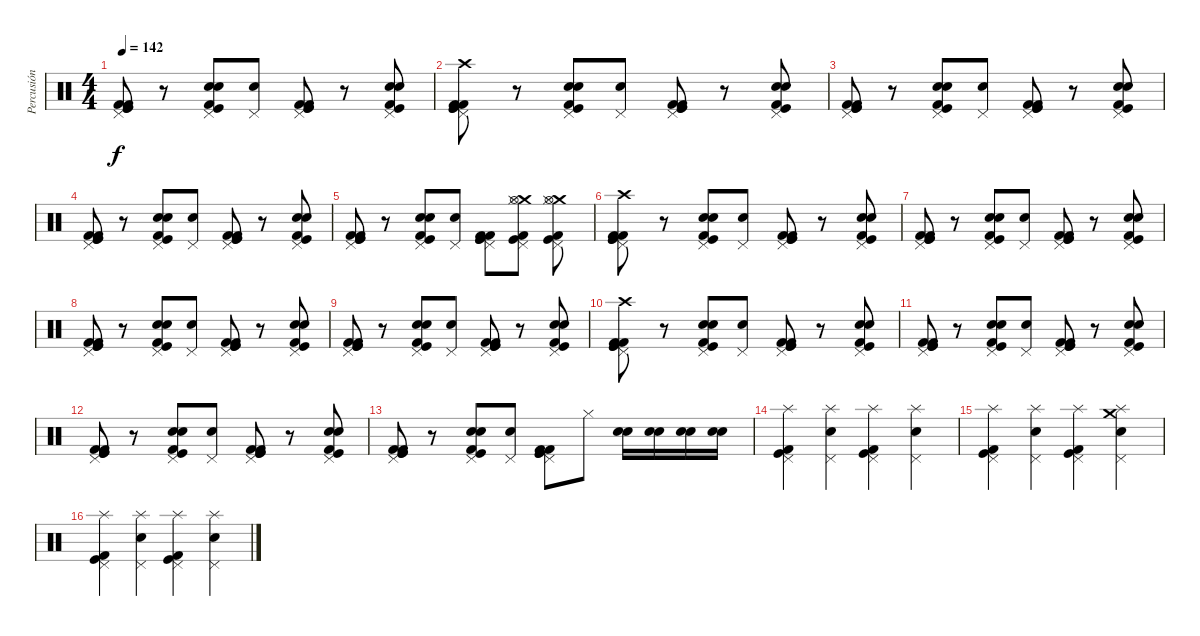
\track ("Percusión" "Percusión") {instrument percussion}
\staff {score}
\articulation defaults
\ts (4 4)
\tempo 142
\clef neutral
\ks c
("Kick (hit) 2" "Kick (hit)" "Pedal Hi-Hat (hit)" "Kick (hit) 2" "Kick (hit)").8{dy f} r.8 ("Snare (hit) 2" "Pedal Hi-Hat (hit)" "Electric Snare (hit)" "Kick (hit)" "Kick (hit) 2").8 ("Pedal Hi-Hat (hit)" "Electric Snare (hit)").8 ("Kick (hit) 2" "Kick (hit)" "Pedal Hi-Hat (hit)" "Kick (hit) 2" "Kick (hit)").8 r.8 ("Snare (hit) 2" "Pedal Hi-Hat (hit)" "Electric Snare (hit)" "Kick (hit)" "Kick (hit) 2").8 |
("Kick (hit) 2" "Kick (hit)" "Crash high (hit)" "Pedal Hi-Hat (hit)" "Kick (hit) 2" "Kick (hit)").8 r.8 ("Snare (hit) 2" "Pedal Hi-Hat (hit)" "Electric Snare (hit)" "Kick (hit)" "Kick (hit) 2").8 ("Pedal Hi-Hat (hit)" "Electric Snare (hit)").8 ("Kick (hit) 2" "Kick (hit)" "Pedal Hi-Hat (hit)" "Kick (hit) 2" "Kick (hit)").8 r.8 ("Snare (hit) 2" "Pedal Hi-Hat (hit)" "Electric Snare (hit)" "Kick (hit)" "Kick (hit) 2").8 |
("Kick (hit) 2" "Kick (hit)" "Pedal Hi-Hat (hit)" "Kick (hit) 2" "Kick (hit)").8 r.8 ("Snare (hit) 2" "Pedal Hi-Hat (hit)" "Electric Snare (hit)" "Kick (hit)" "Kick (hit) 2").8 ("Pedal Hi-Hat (hit)" "Electric Snare (hit)").8 ("Kick (hit) 2" "Kick (hit)" "Pedal Hi-Hat (hit)" "Kick (hit) 2" "Kick (hit)").8 r.8 ("Snare (hit) 2" "Pedal Hi-Hat (hit)" "Electric Snare (hit)" "Kick (hit)" "Kick (hit) 2").8 |
("Kick (hit) 2" "Kick (hit)" "Pedal Hi-Hat (hit)" "Kick (hit) 2" "Kick (hit)").8 r.8 ("Snare (hit) 2" "Pedal Hi-Hat (hit)" "Electric Snare (hit)" "Kick (hit)" "Kick (hit) 2").8 ("Pedal Hi-Hat (hit)" "Electric Snare (hit)").8 ("Kick (hit) 2" "Kick (hit)" "Pedal Hi-Hat (hit)" "Kick (hit) 2" "Kick (hit)").8 r.8 ("Snare (hit) 2" "Pedal Hi-Hat (hit)" "Electric Snare (hit)" "Kick (hit)" "Kick (hit) 2").8 |
("Kick (hit) 2" "Kick (hit)" "Pedal Hi-Hat (hit)" "Kick (hit) 2" "Kick (hit)").8 r.8 ("Snare (hit) 2" "Pedal Hi-Hat (hit)" "Electric Snare (hit)" "Kick (hit)" "Kick (hit) 2").8 ("Pedal Hi-Hat (hit)" "Electric Snare (hit)").8 ("Kick (hit) 2" "Kick (hit)" "Pedal Hi-Hat (hit)" "Kick (hit) 2" "Kick (hit)").8 ("Crash medium (hit)" "Hi-Hat (open)" "Pedal Hi-Hat (hit)" "Hi-Hat (closed)" "Kick (hit)" "Kick (hit) 2").8 ("Crash medium (hit)" "Hi-Hat (open)" "Pedal Hi-Hat (hit)" "Hi-Hat (closed)" "Kick (hit)" "Kick (hit) 2").8 |
("Kick (hit) 2" "Kick (hit)" "Crash high (hit)" "Pedal Hi-Hat (hit)" "Kick (hit) 2" "Kick (hit)").8 r.8 ("Snare (hit) 2" "Pedal Hi-Hat (hit)" "Electric Snare (hit)" "Kick (hit)" "Kick (hit) 2").8 ("Pedal Hi-Hat (hit)" "Electric Snare (hit)").8 ("Kick (hit) 2" "Kick (hit)" "Pedal Hi-Hat (hit)" "Kick (hit) 2" "Kick (hit)").8 r.8 ("Snare (hit) 2" "Pedal Hi-Hat (hit)" "Electric Snare (hit)" "Kick (hit)" "Kick (hit) 2").8 |
("Kick (hit) 2" "Kick (hit)" "Pedal Hi-Hat (hit)" "Kick (hit) 2" "Kick (hit)").8 r.8 ("Snare (hit) 2" "Pedal Hi-Hat (hit)" "Electric Snare (hit)" "Kick (hit)" "Kick (hit) 2").8 ("Pedal Hi-Hat (hit)" "Electric Snare (hit)").8 ("Kick (hit) 2" "Kick (hit)" "Pedal Hi-Hat (hit)" "Kick (hit) 2" "Kick (hit)").8 r.8 ("Snare (hit) 2" "Pedal Hi-Hat (hit)" "Electric Snare (hit)" "Kick (hit)" "Kick (hit) 2").8 |
("Kick (hit) 2" "Kick (hit)" "Pedal Hi-Hat (hit)" "Kick (hit) 2" "Kick (hit)").8 r.8 ("Snare (hit) 2" "Pedal Hi-Hat (hit)" "Electric Snare (hit)" "Kick (hit)" "Kick (hit) 2").8 ("Pedal Hi-Hat (hit)" "Electric Snare (hit)").8 ("Kick (hit) 2" "Kick (hit)" "Pedal Hi-Hat (hit)" "Kick (hit) 2" "Kick (hit)").8 r.8 ("Snare (hit) 2" "Pedal Hi-Hat (hit)" "Electric Snare (hit)" "Kick (hit)" "Kick (hit) 2").8 |
("Kick (hit) 2" "Kick (hit)" "Pedal Hi-Hat (hit)" "Kick (hit) 2" "Kick (hit)").8 r.8 ("Snare (hit) 2" "Pedal Hi-Hat (hit)" "Electric Snare (hit)" "Kick (hit)" "Kick (hit) 2").8 ("Pedal Hi-Hat (hit)" "Electric Snare (hit)").8 ("Kick (hit) 2" "Kick (hit)" "Pedal Hi-Hat (hit)" "Kick (hit) 2" "Kick (hit)").8 r.8 ("Snare (hit) 2" "Pedal Hi-Hat (hit)" "Electric Snare (hit)" "Kick (hit)" "Kick (hit) 2").8 |
("Kick (hit) 2" "Kick (hit)" "Crash high (hit)" "Pedal Hi-Hat (hit)" "Kick (hit) 2" "Kick (hit)").8 r.8 ("Snare (hit) 2" "Pedal Hi-Hat (hit)" "Electric Snare (hit)" "Kick (hit)" "Kick (hit) 2").8 ("Pedal Hi-Hat (hit)" "Electric Snare (hit)").8 ("Kick (hit) 2" "Kick (hit)" "Pedal Hi-Hat (hit)" "Kick (hit) 2" "Kick (hit)").8 r.8 ("Snare (hit) 2" "Pedal Hi-Hat (hit)" "Electric Snare (hit)" "Kick (hit)" "Kick (hit) 2").8 |
("Kick (hit) 2" "Kick (hit)" "Pedal Hi-Hat (hit)" "Kick (hit) 2" "Kick (hit)").8 r.8 ("Snare (hit) 2" "Pedal Hi-Hat (hit)" "Electric Snare (hit)" "Kick (hit)" "Kick (hit) 2").8 ("Pedal Hi-Hat (hit)" "Electric Snare (hit)").8 ("Kick (hit) 2" "Kick (hit)" "Pedal Hi-Hat (hit)" "Kick (hit) 2" "Kick (hit)").8 r.8 ("Snare (hit) 2" "Pedal Hi-Hat (hit)" "Electric Snare (hit)" "Kick (hit)" "Kick (hit) 2").8 |
("Kick (hit) 2" "Kick (hit)" "Pedal Hi-Hat (hit)" "Kick (hit) 2" "Kick (hit)").8 r.8 ("Snare (hit) 2" "Pedal Hi-Hat (hit)" "Electric Snare (hit)" "Kick (hit)" "Kick (hit) 2").8 ("Pedal Hi-Hat (hit)" "Electric Snare (hit)").8 ("Kick (hit) 2" "Kick (hit)" "Pedal Hi-Hat (hit)" "Kick (hit) 2" "Kick (hit)").8 r.8 ("Snare (hit) 2" "Pedal Hi-Hat (hit)" "Electric Snare (hit)" "Kick (hit)" "Kick (hit) 2").8 |
("Kick (hit) 2" "Kick (hit)" "Pedal Hi-Hat (hit)" "Kick (hit) 2" "Kick (hit)").8 r.8 ("Snare (hit) 2" "Pedal Hi-Hat (hit)" "Electric Snare (hit)" "Kick (hit)" "Kick (hit) 2").8 ("Pedal Hi-Hat (hit)" "Electric Snare (hit)").8 ("Kick (hit) 2" "Kick (hit)" "Pedal Hi-Hat (hit)" "Kick (hit) 2" "Kick (hit)").8 "Hi-Hat (closed)".8 ("Snare (hit) 2" "Electric Snare (hit)").16 ("Snare (hit) 2" "Electric Snare (hit)").16 ("Snare (hit) 2" "Electric Snare (hit)").16 ("Snare (hit) 2" "Electric Snare (hit)").16 |
("Splash (hit)" "Pedal Hi-Hat (hit)" "Kick (hit)" "Kick (hit) 2").4 ("Splash (hit)" "Pedal Hi-Hat (hit)" "Electric Snare (hit)").4 ("Splash (hit)" "Pedal Hi-Hat (hit)" "Kick (hit)" "Kick (hit) 2").4 ("Splash (hit)" "Pedal Hi-Hat (hit)" "Electric Snare (hit)").4 |
("Splash (hit)" "Pedal Hi-Hat (hit)" "Kick (hit)" "Kick (hit) 2").4 ("Splash (hit)" "Pedal Hi-Hat (hit)" "Electric Snare (hit)").4 ("Splash (hit)" "Pedal Hi-Hat (hit)" "Kick (hit)" "Kick (hit) 2").4 ("Crash medium (hit)" "Splash (hit)" "Pedal Hi-Hat (hit)" "Electric Snare (hit)").4 |
("Splash (hit)" "Pedal Hi-Hat (hit)" "Kick (hit)" "Kick (hit) 2").4 ("Splash (hit)" "Pedal Hi-Hat (hit)" "Electric Snare (hit)").4 ("Splash (hit)" "Pedal Hi-Hat (hit)" "Kick (hit)" "Kick (hit) 2").4 ("Splash (hit)" "Pedal Hi-Hat (hit)" "Electric Snare (hit)").4
